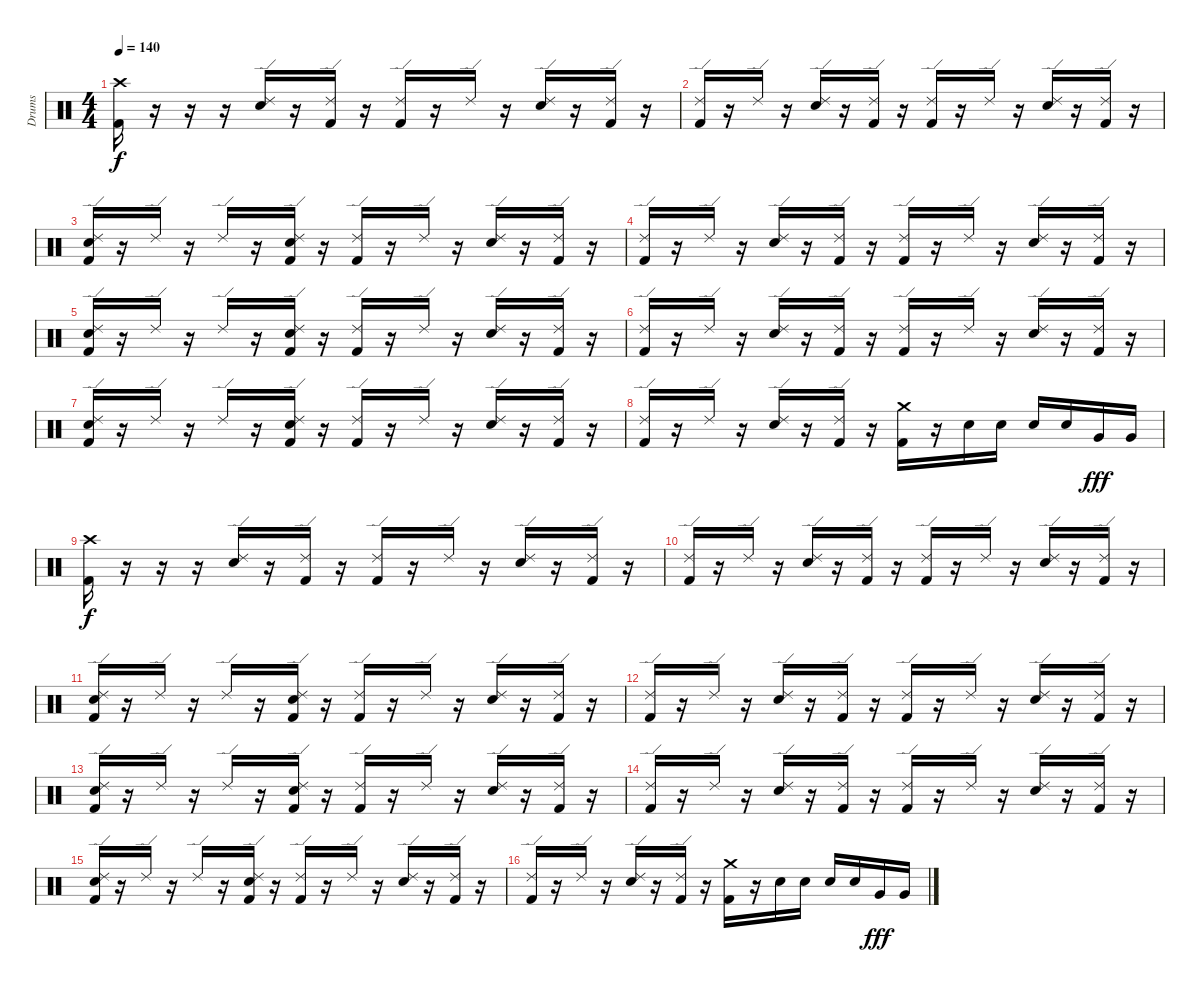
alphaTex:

\track ("Drums" "Drums") {instrument percussion}
\staff {score}
\articulation defaults
\ts (4 4)
\tempo 140
\clef neutral
\ks c
("Crash high (hit)" "Kick (hit) 2").16{dy f} r.16 r.16 r.16 ("Ride (edge) 2" "Electric Snare (hit)").16 r.16 ("Ride (edge) 2" "Kick (hit) 2").16 r.16 ("Ride (edge) 2" "Kick (hit) 2").16 r.16 "Ride (edge) 2".16 r.16 ("Ride (edge) 2" "Electric Snare (hit)").16 r.16 ("Ride (edge) 2" "Kick (hit) 2").16 r.16 |
("Ride (edge) 2" "Kick (hit) 2").16 r.16 "Ride (edge) 2".16 r.16 ("Ride (edge) 2" "Electric Snare (hit)").16 r.16 ("Ride (edge) 2" "Kick (hit) 2").16 r.16 ("Ride (edge) 2" "Kick (hit) 2").16 r.16 "Ride (edge) 2".16 r.16 ("Ride (edge) 2" "Electric Snare (hit)").16 r.16 ("Ride (edge) 2" "Kick (hit) 2").16 r.16 |
("Ride (edge) 2" "Electric Snare (hit)" "Kick (hit) 2").16 r.16 "Ride (edge) 2".16 r.16 "Ride (edge) 2".16 r.16 ("Ride (edge) 2" "Electric Snare (hit)" "Kick (hit) 2").16 r.16 ("Ride (edge) 2" "Kick (hit) 2").16 r.16 "Ride (edge) 2".16 r.16 ("Ride (edge) 2" "Electric Snare (hit)").16 r.16 ("Ride (edge) 2" "Kick (hit) 2").16 r.16 |
("Ride (edge) 2" "Kick (hit) 2").16 r.16 "Ride (edge) 2".16 r.16 ("Ride (edge) 2" "Electric Snare (hit)").16 r.16 ("Ride (edge) 2" "Kick (hit) 2").16 r.16 ("Ride (edge) 2" "Kick (hit) 2").16 r.16 "Ride (edge) 2".16 r.16 ("Ride (edge) 2" "Electric Snare (hit)").16 r.16 ("Ride (edge) 2" "Kick (hit) 2").16 r.16 |
("Ride (edge) 2" "Electric Snare (hit)" "Kick (hit) 2").16 r.16 "Ride (edge) 2".16 r.16 "Ride (edge) 2".16 r.16 ("Ride (edge) 2" "Electric Snare (hit)" "Kick (hit) 2").16 r.16 ("Ride (edge) 2" "Kick (hit) 2").16 r.16 "Ride (edge) 2".16 r.16 ("Ride (edge) 2" "Electric Snare (hit)").16 r.16 ("Ride (edge) 2" "Kick (hit) 2").16 r.16 |
("Ride (edge) 2" "Kick (hit) 2").16 r.16 "Ride (edge) 2".16 r.16 ("Ride (edge) 2" "Electric Snare (hit)").16 r.16 ("Ride (edge) 2" "Kick (hit) 2").16 r.16 ("Ride (edge) 2" "Kick (hit) 2").16 r.16 "Ride (edge) 2".16 r.16 ("Ride (edge) 2" "Electric Snare (hit)").16 r.16 ("Ride (edge) 2" "Kick (hit) 2").16 r.16 |
("Ride (edge) 2" "Electric Snare (hit)" "Kick (hit) 2").16 r.16 "Ride (edge) 2".16 r.16 "Ride (edge) 2".16 r.16 ("Ride (edge) 2" "Electric Snare (hit)" "Kick (hit) 2").16 r.16 ("Ride (edge) 2" "Kick (hit) 2").16 r.16 "Ride (edge) 2".16 r.16 ("Ride (edge) 2" "Electric Snare (hit)").16 r.16 ("Ride (edge) 2" "Kick (hit) 2").16 r.16 |
("Ride (edge) 2" "Kick (hit) 2").16 r.16 "Ride (edge) 2".16 r.16 ("Ride (edge) 2" "Electric Snare (hit)").16 r.16 ("Ride (edge) 2" "Kick (hit) 2").16 r.16 ("Crash medium (hit)" "Kick (hit) 2").16 r.16 "Electric Snare (hit)".16 "Electric Snare (hit)".16 "Electric Snare (hit)".16 "Electric Snare (hit)".16 "Very Low Tom (hit)".16{dy fff} "Very Low Tom (hit)".16 |
("Crash high (hit)" "Kick (hit) 2").16{dy f} r.16 r.16 r.16 ("Ride (edge) 2" "Electric Snare (hit)").16 r.16 ("Ride (edge) 2" "Kick (hit) 2").16 r.16 ("Ride (edge) 2" "Kick (hit) 2").16 r.16 "Ride (edge) 2".16 r.16 ("Ride (edge) 2" "Electric Snare (hit)").16 r.16 ("Ride (edge) 2" "Kick (hit) 2").16 r.16 |
("Ride (edge) 2" "Kick (hit) 2").16 r.16 "Ride (edge) 2".16 r.16 ("Ride (edge) 2" "Electric Snare (hit)").16 r.16 ("Ride (edge) 2" "Kick (hit) 2").16 r.16 ("Ride (edge) 2" "Kick (hit) 2").16 r.16 "Ride (edge) 2".16 r.16 ("Ride (edge) 2" "Electric Snare (hit)").16 r.16 ("Ride (edge) 2" "Kick (hit) 2").16 r.16 |
("Ride (edge) 2" "Electric Snare (hit)" "Kick (hit) 2").16 r.16 "Ride (edge) 2".16 r.16 "Ride (edge) 2".16 r.16 ("Ride (edge) 2" "Electric Snare (hit)" "Kick (hit) 2").16 r.16 ("Ride (edge) 2" "Kick (hit) 2").16 r.16 "Ride (edge) 2".16 r.16 ("Ride (edge) 2" "Electric Snare (hit)").16 r.16 ("Ride (edge) 2" "Kick (hit) 2").16 r.16 |
("Ride (edge) 2" "Kick (hit) 2").16 r.16 "Ride (edge) 2".16 r.16 ("Ride (edge) 2" "Electric Snare (hit)").16 r.16 ("Ride (edge) 2" "Kick (hit) 2").16 r.16 ("Ride (edge) 2" "Kick (hit) 2").16 r.16 "Ride (edge) 2".16 r.16 ("Ride (edge) 2" "Electric Snare (hit)").16 r.16 ("Ride (edge) 2" "Kick (hit) 2").16 r.16 |
("Ride (edge) 2" "Electric Snare (hit)" "Kick (hit) 2").16 r.16 "Ride (edge) 2".16 r.16 "Ride (edge) 2".16 r.16 ("Ride (edge) 2" "Electric Snare (hit)" "Kick (hit) 2").16 r.16 ("Ride (edge) 2" "Kick (hit) 2").16 r.16 "Ride (edge) 2".16 r.16 ("Ride (edge) 2" "Electric Snare (hit)").16 r.16 ("Ride (edge) 2" "Kick (hit) 2").16 r.16 |
("Ride (edge) 2" "Kick (hit) 2").16 r.16 "Ride (edge) 2".16 r.16 ("Ride (edge) 2" "Electric Snare (hit)").16 r.16 ("Ride (edge) 2" "Kick (hit) 2").16 r.16 ("Ride (edge) 2" "Kick (hit) 2").16 r.16 "Ride (edge) 2".16 r.16 ("Ride (edge) 2" "Electric Snare (hit)").16 r.16 ("Ride (edge) 2" "Kick (hit) 2").16 r.16 |
("Ride (edge) 2" "Electric Snare (hit)" "Kick (hit) 2").16 r.16 "Ride (edge) 2".16 r.16 "Ride (edge) 2".16 r.16 ("Ride (edge) 2" "Electric Snare (hit)" "Kick (hit) 2").16 r.16 ("Ride (edge) 2" "Kick (hit) 2").16 r.16 "Ride (edge) 2".16 r.16 ("Ride (edge) 2" "Electric Snare (hit)").16 r.16 ("Ride (edge) 2" "Kick (hit) 2").16 r.16 |
("Ride (edge) 2" "Kick (hit) 2").16 r.16 "Ride (edge) 2".16 r.16 ("Ride (edge) 2" "Electric Snare (hit)").16 r.16 ("Ride (edge) 2" "Kick (hit) 2").16 r.16 ("Crash medium (hit)" "Kick (hit) 2").16 r.16 "Electric Snare (hit)".16 "Electric Snare (hit)".16 "Electric Snare (hit)".16 "Electric Snare (hit)".16 "Very Low Tom (hit)".16{dy fff} "Very Low Tom (hit)".16
